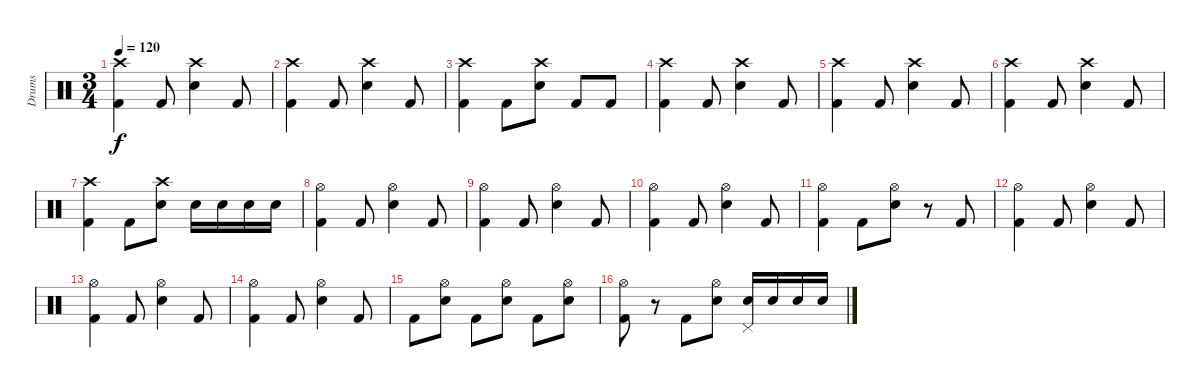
\track ("Drums" "Drums") {instrument percussion}
\staff {score}
\articulation defaults
\ts (3 4)
\tempo 120
\clef neutral
\ks c
("Crash high (hit)" "Kick (hit) 2").4{dy f} "Kick (hit) 2".8 ("Crash high (hit)" "Snare (hit) 2").4 "Kick (hit) 2".8 |
("Crash high (hit)" "Kick (hit) 2").4 "Kick (hit) 2".8 ("Crash high (hit)" "Snare (hit) 2").4 "Kick (hit) 2".8 |
("Crash high (hit)" "Kick (hit) 2").4 "Kick (hit) 2".8 ("Crash high (hit)" "Snare (hit) 2").8 "Kick (hit) 2".8 "Kick (hit) 2".8 |
("Crash high (hit)" "Kick (hit) 2").4 "Kick (hit) 2".8 ("Crash high (hit)" "Snare (hit) 2").4 "Kick (hit) 2".8 |
("Crash high (hit)" "Kick (hit) 2").4 "Kick (hit) 2".8 ("Crash high (hit)" "Snare (hit) 2").4 "Kick (hit) 2".8 |
("Crash high (hit)" "Kick (hit) 2").4 "Kick (hit) 2".8 ("Crash high (hit)" "Snare (hit) 2").4 "Kick (hit) 2".8 |
("Crash high (hit)" "Kick (hit) 2").4 "Kick (hit) 2".8 ("Crash high (hit)" "Snare (hit) 2").8 "Snare (hit) 2".16 "Snare (hit) 2".16 "Snare (hit) 2".16 "Snare (hit) 2".16 |
("Hi-Hat (open)" "Kick (hit) 2").4 "Kick (hit) 2".8 ("Hi-Hat (open)" "Snare (hit) 2").4 "Kick (hit) 2".8 |
("Hi-Hat (open)" "Kick (hit) 2").4 "Kick (hit) 2".8 ("Hi-Hat (open)" "Snare (hit) 2").4 "Kick (hit) 2".8 |
("Hi-Hat (open)" "Kick (hit) 2").4 "Kick (hit) 2".8 ("Hi-Hat (open)" "Snare (hit) 2").4 "Kick (hit) 2".8 |
("Hi-Hat (open)" "Kick (hit) 2").4 "Kick (hit) 2".8 ("Hi-Hat (open)" "Snare (hit) 2").8 r.8 "Kick (hit) 2".8 |
("Hi-Hat (open)" "Kick (hit) 2").4 "Kick (hit) 2".8 ("Hi-Hat (open)" "Snare (hit) 2").4 "Kick (hit) 2".8 |
("Hi-Hat (open)" "Kick (hit) 2").4 "Kick (hit) 2".8 ("Hi-Hat (open)" "Snare (hit) 2").4 "Kick (hit) 2".8 |
("Hi-Hat (open)" "Kick (hit) 2").4 "Kick (hit) 2".8 ("Hi-Hat (open)" "Snare (hit) 2").4 "Kick (hit) 2".8 |
"Kick (hit) 2".8 ("Hi-Hat (open)" "Snare (hit) 2").8 "Kick (hit) 2".8 ("Hi-Hat (open)" "Snare (hit) 2").8 "Kick (hit) 2".8 ("Hi-Hat (open)" "Snare (hit) 2").8 |
("Hi-Hat (open)" "Kick (hit) 2").8 r.8 "Kick (hit) 2".8 ("Hi-Hat (open)" "Snare (hit) 2").8 ("Pedal Hi-Hat (hit)" "Snare (hit) 2").16 "Snare (hit) 2".16 "Snare (hit) 2".16 "Snare (hit) 2".16
